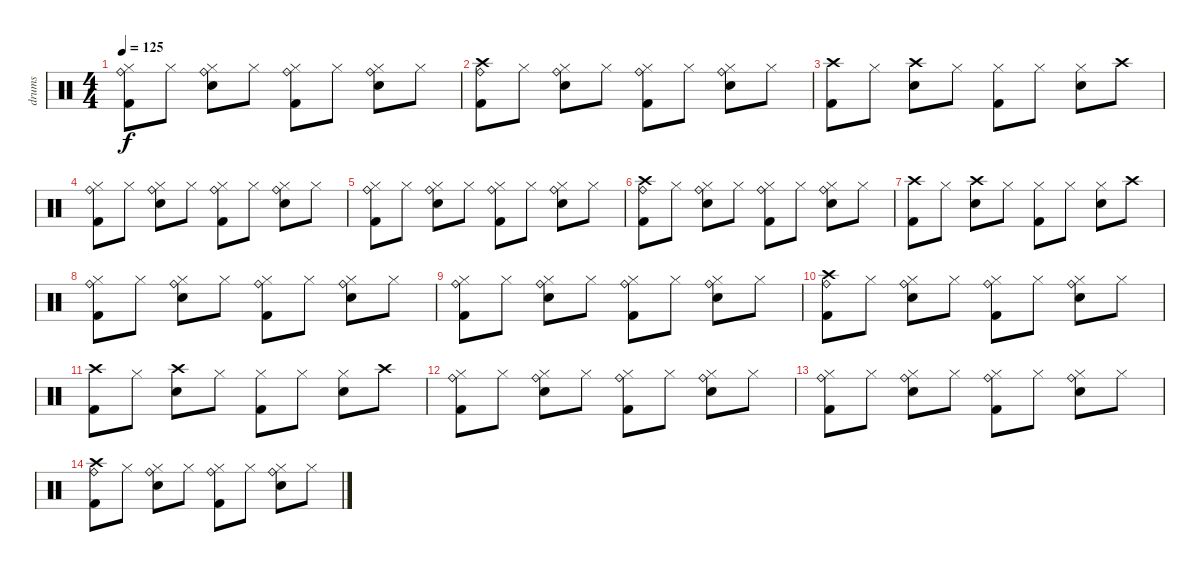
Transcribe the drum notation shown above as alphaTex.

\track ("drums" "drums") {instrument percussion}
\staff {score}
\articulation defaults
\ts (4 4)
\tempo 125
\clef neutral
\ks c
("Hi-Hat (closed)" "Ride (bell)" "Kick (hit) 2").8{dy f} "Hi-Hat (closed)".8 ("Hi-Hat (closed)" "Snare (hit) 2" "Ride (bell)").8 "Hi-Hat (closed)".8 ("Hi-Hat (closed)" "Ride (bell)" "Kick (hit) 2").8 "Hi-Hat (closed)".8 ("Hi-Hat (closed)" "Snare (hit) 2" "Ride (bell)").8 "Hi-Hat (closed)".8 |
("Crash high (hit)" "Ride (bell)" "Kick (hit) 2").8 "Hi-Hat (closed)".8 ("Hi-Hat (closed)" "Snare (hit) 2" "Ride (bell)").8 "Hi-Hat (closed)".8 ("Hi-Hat (closed)" "Ride (bell)" "Kick (hit) 2").8 "Hi-Hat (closed)".8 ("Hi-Hat (closed)" "Snare (hit) 2" "Ride (bell)").8 "Hi-Hat (closed)".8 |
("Crash high (hit)" "Kick (hit) 2").8 "Hi-Hat (closed)".8 ("Crash high (hit)" "Snare (hit) 2").8 "Hi-Hat (closed)".8 ("Hi-Hat (closed)" "Kick (hit) 2").8 "Hi-Hat (closed)".8 ("Hi-Hat (closed)" "Snare (hit) 2").8 "Crash high (hit)".8 |
("Hi-Hat (closed)" "Ride (bell)" "Kick (hit) 2").8 "Hi-Hat (closed)".8 ("Hi-Hat (closed)" "Snare (hit) 2" "Ride (bell)").8 "Hi-Hat (closed)".8 ("Hi-Hat (closed)" "Ride (bell)" "Kick (hit) 2").8 "Hi-Hat (closed)".8 ("Hi-Hat (closed)" "Snare (hit) 2" "Ride (bell)").8 "Hi-Hat (closed)".8 |
("Hi-Hat (closed)" "Ride (bell)" "Kick (hit) 2").8 "Hi-Hat (closed)".8 ("Hi-Hat (closed)" "Snare (hit) 2" "Ride (bell)").8 "Hi-Hat (closed)".8 ("Hi-Hat (closed)" "Ride (bell)" "Kick (hit) 2").8 "Hi-Hat (closed)".8 ("Hi-Hat (closed)" "Snare (hit) 2" "Ride (bell)").8 "Hi-Hat (closed)".8 |
("Crash high (hit)" "Ride (bell)" "Kick (hit) 2").8 "Hi-Hat (closed)".8 ("Hi-Hat (closed)" "Snare (hit) 2" "Ride (bell)").8 "Hi-Hat (closed)".8 ("Hi-Hat (closed)" "Ride (bell)" "Kick (hit) 2").8 "Hi-Hat (closed)".8 ("Hi-Hat (closed)" "Snare (hit) 2" "Ride (bell)").8 "Hi-Hat (closed)".8 |
("Crash high (hit)" "Kick (hit) 2").8 "Hi-Hat (closed)".8 ("Crash high (hit)" "Snare (hit) 2").8 "Hi-Hat (closed)".8 ("Hi-Hat (closed)" "Kick (hit) 2").8 "Hi-Hat (closed)".8 ("Hi-Hat (closed)" "Snare (hit) 2").8 "Crash high (hit)".8 |
("Hi-Hat (closed)" "Ride (bell)" "Kick (hit) 2").8 "Hi-Hat (closed)".8 ("Hi-Hat (closed)" "Snare (hit) 2" "Ride (bell)").8 "Hi-Hat (closed)".8 ("Hi-Hat (closed)" "Ride (bell)" "Kick (hit) 2").8 "Hi-Hat (closed)".8 ("Hi-Hat (closed)" "Snare (hit) 2" "Ride (bell)").8 "Hi-Hat (closed)".8 |
("Hi-Hat (closed)" "Ride (bell)" "Kick (hit) 2").8 "Hi-Hat (closed)".8 ("Hi-Hat (closed)" "Snare (hit) 2" "Ride (bell)").8 "Hi-Hat (closed)".8 ("Hi-Hat (closed)" "Ride (bell)" "Kick (hit) 2").8 "Hi-Hat (closed)".8 ("Hi-Hat (closed)" "Snare (hit) 2" "Ride (bell)").8 "Hi-Hat (closed)".8 |
("Crash high (hit)" "Ride (bell)" "Kick (hit) 2").8 "Hi-Hat (closed)".8 ("Hi-Hat (closed)" "Snare (hit) 2" "Ride (bell)").8 "Hi-Hat (closed)".8 ("Hi-Hat (closed)" "Ride (bell)" "Kick (hit) 2").8 "Hi-Hat (closed)".8 ("Hi-Hat (closed)" "Snare (hit) 2" "Ride (bell)").8 "Hi-Hat (closed)".8 |
("Crash high (hit)" "Kick (hit) 2").8 "Hi-Hat (closed)".8 ("Crash high (hit)" "Snare (hit) 2").8 "Hi-Hat (closed)".8 ("Hi-Hat (closed)" "Kick (hit) 2").8 "Hi-Hat (closed)".8 ("Hi-Hat (closed)" "Snare (hit) 2").8 "Crash high (hit)".8 |
("Hi-Hat (closed)" "Ride (bell)" "Kick (hit) 2").8 "Hi-Hat (closed)".8 ("Hi-Hat (closed)" "Snare (hit) 2" "Ride (bell)").8 "Hi-Hat (closed)".8 ("Hi-Hat (closed)" "Ride (bell)" "Kick (hit) 2").8 "Hi-Hat (closed)".8 ("Hi-Hat (closed)" "Snare (hit) 2" "Ride (bell)").8 "Hi-Hat (closed)".8 |
("Hi-Hat (closed)" "Ride (bell)" "Kick (hit) 2").8 "Hi-Hat (closed)".8 ("Hi-Hat (closed)" "Snare (hit) 2" "Ride (bell)").8 "Hi-Hat (closed)".8 ("Hi-Hat (closed)" "Ride (bell)" "Kick (hit) 2").8 "Hi-Hat (closed)".8 ("Hi-Hat (closed)" "Snare (hit) 2" "Ride (bell)").8 "Hi-Hat (closed)".8 |
("Crash high (hit)" "Ride (bell)" "Kick (hit) 2").8 "Hi-Hat (closed)".8 ("Hi-Hat (closed)" "Snare (hit) 2" "Ride (bell)").8 "Hi-Hat (closed)".8 ("Hi-Hat (closed)" "Ride (bell)" "Kick (hit) 2").8 "Hi-Hat (closed)".8 ("Hi-Hat (closed)" "Snare (hit) 2" "Ride (bell)").8 "Hi-Hat (closed)".8
